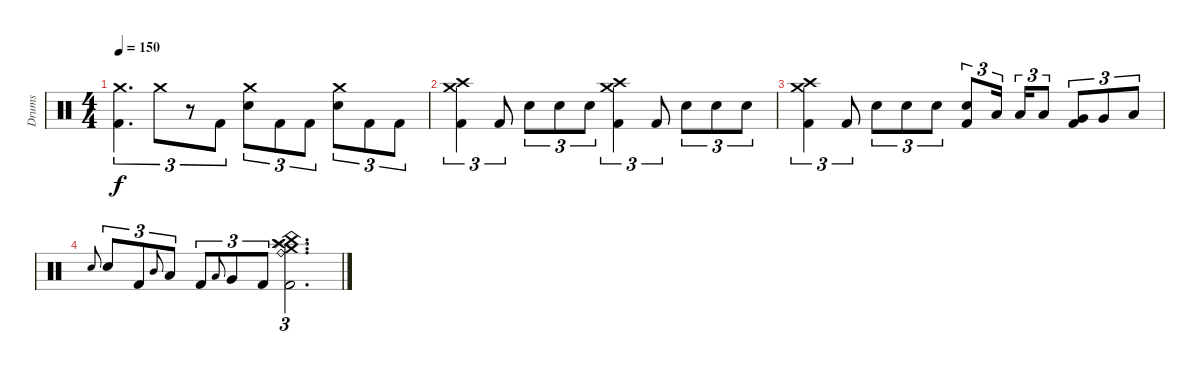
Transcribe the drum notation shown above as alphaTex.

\track ("Drums" "Drums") {instrument percussion}
\staff {score}
\articulation defaults
\ts (4 4)
\tempo 150
\clef neutral
\ks c
("Crash medium (hit)" "Kick (hit) 2").4{d tu (3 2) dy f} "Crash medium (hit)".8{tu (3 2)} r.8{tu (3 2)} "Kick (hit) 2".8{tu (3 2)} ("Crash medium (hit)" "Electric Snare (hit)").8{tu (3 2)} "Kick (hit) 2".8{tu (3 2)} "Kick (hit) 2".8{tu (3 2)} ("Crash medium (hit)" "Electric Snare (hit)").8{tu (3 2)} "Kick (hit) 2".8{tu (3 2)} "Kick (hit) 2".8{tu (3 2)} |
("Crash medium (hit)" "Crash high (hit)" "Kick (hit) 2").4{tu (3 2)} "Kick (hit) 2".8{tu (3 2)} "Electric Snare (hit)".8{tu (3 2)} "Electric Snare (hit)".8{tu (3 2)} "Electric Snare (hit)".8{tu (3 2)} ("Crash medium (hit)" "Crash high (hit)" "Kick (hit) 2").4{tu (3 2)} "Kick (hit) 2".8{tu (3 2)} "Electric Snare (hit)".8{tu (3 2)} "Electric Snare (hit)".8{tu (3 2)} "Electric Snare (hit)".8{tu (3 2)} |
("Crash medium (hit)" "Crash high (hit)" "Kick (hit) 2").4{tu (3 2)} "Kick (hit) 2".8{tu (3 2)} "Electric Snare (hit)".8{tu (3 2)} "Electric Snare (hit)".8{tu (3 2)} "Electric Snare (hit)".8{tu (3 2)} ("Electric Snare (hit)" "Kick (hit) 2").8{tu (3 2)} "Low Tom (hit)".16{tu (3 2) beam splitsecondary} "Low Tom (hit)".16{tu (3 2)} "Low Tom (hit)".8{tu (3 2)} ("Very Low Tom (hit)" "Kick (hit) 2").8{tu (3 2)} "Very Low Tom (hit)".8{tu (3 2)} "Low Floor Tom (hit)".8{tu (3 2)} |
"Electric Snare (hit)".8{gr onbeat} "Electric Snare (hit)".8{tu (3 2)} "Kick (hit) 2".8{tu (3 2)} "Mid Tom (hit)".8{gr onbeat} "Low Tom (hit)".8{tu (3 2)} "Kick (hit) 2".8{tu (3 2)} "Low Tom (hit)".8{gr onbeat} "Very Low Tom (hit)".8{tu (3 2)} "Kick (hit) 2".8{tu (3 2)} ("Ride (bell)" "Splash (hit)" "China (hit)" "Crash medium (hit)" "Crash high (hit)" "Kick (hit) 2").2{d tu (3 2)}
